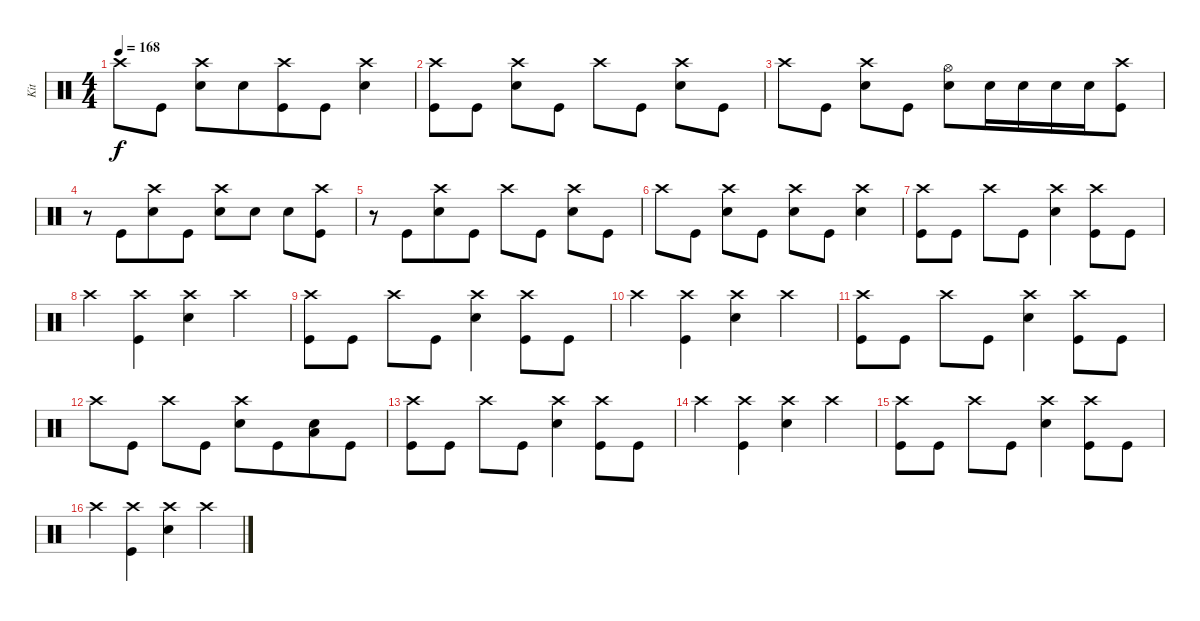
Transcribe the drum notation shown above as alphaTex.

\track ("Kit" "Kit") {instrument percussion}
\staff {score}
\articulation defaults
\ts (4 4)
\tempo 168
\clef neutral
\ks c "Crash high (hit)".8{dy f} "Kick (hit)".8
("Crash high (hit)" "Electric Snare (hit)").8 "Electric Snare (hit)".8{beam merge} ("Crash high (hit)" "Kick (hit)").8 "Kick (hit)".8 ("Crash high (hit)" "Electric Snare (hit)").4 |
("Crash high (hit)" "Kick (hit)").8{beam merge} "Kick (hit)".8 ("Crash high (hit)" "Electric Snare (hit)").8 "Kick (hit)".8 "Crash high (hit)".8 "Kick (hit)".8 ("Crash high (hit)" "Electric Snare (hit)").8 "Kick (hit)".8 |
"Crash high (hit)".8 "Kick (hit)".8 ("Crash high (hit)" "Electric Snare (hit)").8 "Kick (hit)".8 ("Hi-Hat (open)" "Electric Snare (hit)").8 "Electric Snare (hit)".16 "Electric Snare (hit)".16{beam merge} "Electric Snare (hit)".16{beam merge} "Electric Snare (hit)".16{beam merge} ("Crash high (hit)" "Kick (hit)").8 |
r.8 "Kick (hit)".8{beam merge} ("Crash high (hit)" "Electric Snare (hit)").8{beam merge} "Kick (hit)".8 ("Crash high (hit)" "Electric Snare (hit)").8 "Electric Snare (hit)".8 "Electric Snare (hit)".8 ("Crash high (hit)" "Kick (hit)").8 |
r.8{beam merge} "Kick (hit)".8{beam merge} ("Crash high (hit)" "Electric Snare (hit)").8 "Kick (hit)".8 "Crash high (hit)".8{beam merge} "Kick (hit)".8 ("Crash high (hit)" "Electric Snare (hit)").8{beam merge} "Kick (hit)".8 |
"Crash high (hit)".8 "Kick (hit)".8 ("Crash high (hit)" "Electric Snare (hit)").8 "Kick (hit)".8 ("Crash high (hit)" "Electric Snare (hit)").8 "Kick (hit)".8 ("Crash high (hit)" "Electric Snare (hit)").4 |
("Crash high (hit)" "Kick (hit)").8 "Kick (hit)".8 "Crash high (hit)".8 "Kick (hit)".8{beam merge} ("Crash high (hit)" "Electric Snare (hit)").4{beam merge} ("Crash high (hit)" "Kick (hit)").8{beam merge} "Kick (hit)".8 |
"Crash high (hit)".4 ("Crash high (hit)" "Kick (hit)").4 ("Crash high (hit)" "Electric Snare (hit)").4{beam merge} "Crash high (hit)".4 |
("Crash high (hit)" "Kick (hit)").8 "Kick (hit)".8 "Crash high (hit)".8 "Kick (hit)".8{beam merge} ("Crash high (hit)" "Electric Snare (hit)").4{beam merge} ("Crash high (hit)" "Kick (hit)").8{beam merge} "Kick (hit)".8 |
"Crash high (hit)".4 ("Crash high (hit)" "Kick (hit)").4 ("Crash high (hit)" "Electric Snare (hit)").4{beam merge} "Crash high (hit)".4 |
("Crash high (hit)" "Kick (hit)").8 "Kick (hit)".8 "Crash high (hit)".8 "Kick (hit)".8{beam merge} ("Crash high (hit)" "Electric Snare (hit)").4{beam merge} ("Crash high (hit)" "Kick (hit)").8{beam merge} "Kick (hit)".8 |
"Crash high (hit)".8{beam merge} "Kick (hit)".8 "Crash high (hit)".8{beam merge} "Kick (hit)".8 ("Crash high (hit)" "Electric Snare (hit)").8 "Kick (hit)".8{beam merge} ("Electric Snare (hit)" "Low Floor Tom (hit)").8 "Kick (hit)".8 |
("Crash high (hit)" "Kick (hit)").8 "Kick (hit)".8 "Crash high (hit)".8 "Kick (hit)".8{beam merge} ("Crash high (hit)" "Electric Snare (hit)").4{beam merge} ("Crash high (hit)" "Kick (hit)").8{beam merge} "Kick (hit)".8 |
"Crash high (hit)".4 ("Crash high (hit)" "Kick (hit)").4 ("Crash high (hit)" "Electric Snare (hit)").4{beam merge} "Crash high (hit)".4 |
("Crash high (hit)" "Kick (hit)").8 "Kick (hit)".8 "Crash high (hit)".8 "Kick (hit)".8{beam merge} ("Crash high (hit)" "Electric Snare (hit)").4{beam merge} ("Crash high (hit)" "Kick (hit)").8{beam merge} "Kick (hit)".8 |
"Crash high (hit)".4 ("Crash high (hit)" "Kick (hit)").4 ("Crash high (hit)" "Electric Snare (hit)").4{beam merge} "Crash high (hit)".4
